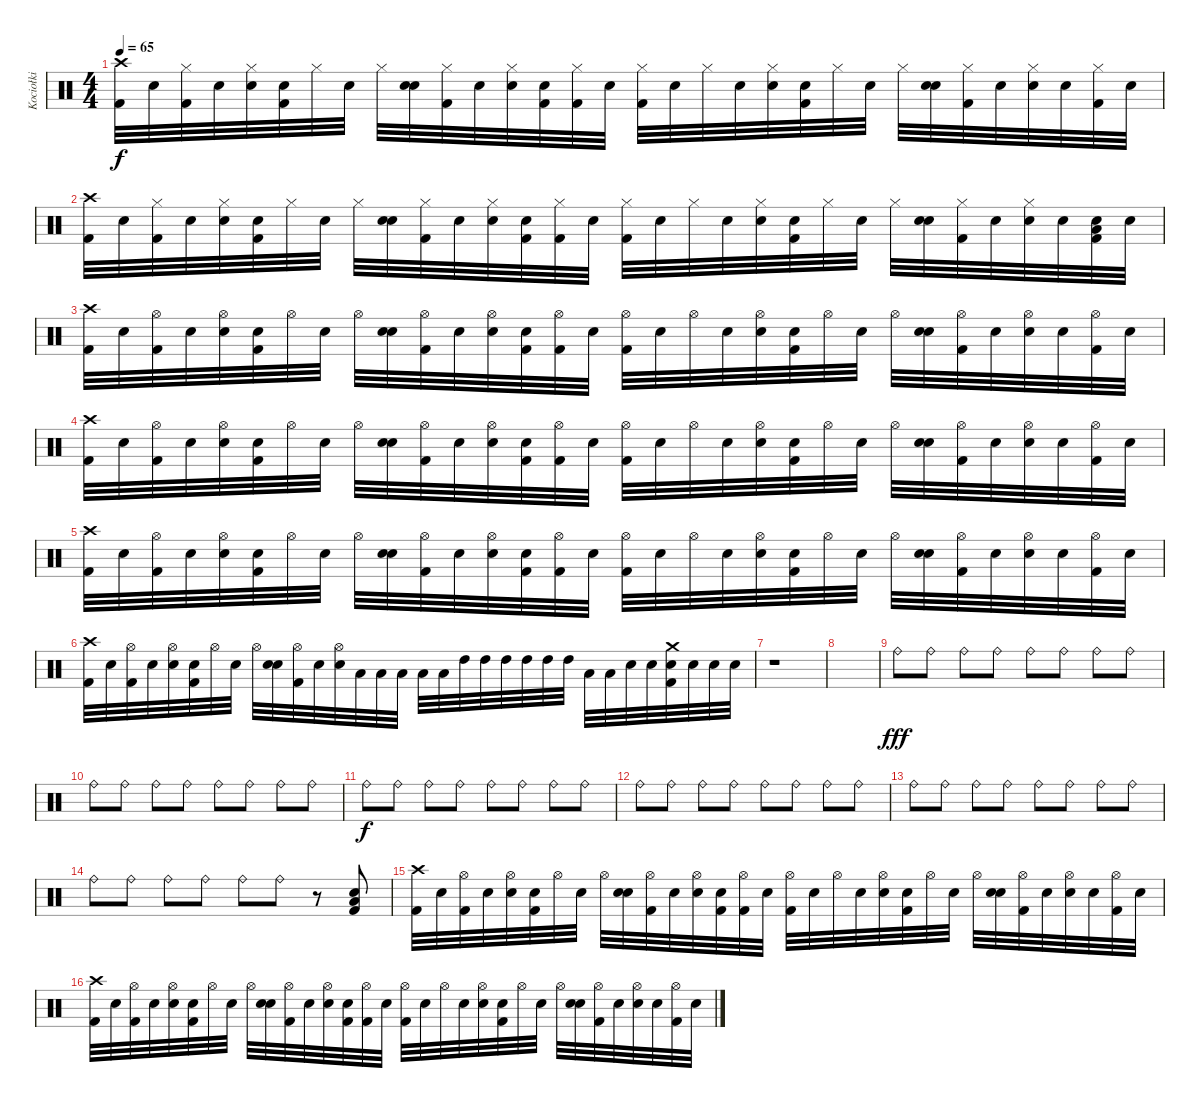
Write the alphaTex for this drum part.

\track ("Kociołki" "Kociołki") {instrument percussion}
\staff {score}
\articulation defaults
\ts (4 4)
\tempo 65
\clef neutral
\ks c
("Crash high (hit)" "Kick (hit) 2").32{dy f} "Snare (hit)".32 ("Hi-Hat (closed)" "Kick (hit) 2").32 "Snare (hit)".32 ("Hi-Hat (closed)" "Snare (hit) 2").32 ("Snare (hit)" "Kick (hit) 2").32 "Hi-Hat (closed)".32 "Snare (hit)".32 "Hi-Hat (closed)".32 ("Snare (hit)" "Snare (hit) 2").32 ("Hi-Hat (closed)" "Kick (hit) 2").32 "Snare (hit)".32 ("Hi-Hat (closed)" "Snare (hit) 2").32 ("Snare (hit)" "Kick (hit) 2").32 ("Hi-Hat (closed)" "Kick (hit) 2").32 "Snare (hit)".32 ("Hi-Hat (closed)" "Kick (hit) 2").32 "Snare (hit)".32 "Hi-Hat (closed)".32 "Snare (hit)".32 ("Hi-Hat (closed)" "Snare (hit) 2").32 ("Snare (hit)" "Kick (hit) 2").32 "Hi-Hat (closed)".32 "Snare (hit)".32 "Hi-Hat (closed)".32 ("Snare (hit)" "Snare (hit) 2").32 ("Hi-Hat (closed)" "Kick (hit) 2").32 "Snare (hit)".32 ("Hi-Hat (closed)" "Snare (hit) 2").32 "Snare (hit)".32 ("Hi-Hat (closed)" "Kick (hit) 2").32 "Snare (hit)".32 |
("Crash high (hit)" "Kick (hit) 2").32 "Snare (hit)".32 ("Hi-Hat (closed)" "Kick (hit) 2").32 "Snare (hit)".32 ("Hi-Hat (closed)" "Snare (hit) 2").32 ("Snare (hit)" "Kick (hit) 2").32 "Hi-Hat (closed)".32 "Snare (hit)".32 "Hi-Hat (closed)".32 ("Snare (hit)" "Snare (hit) 2").32 ("Hi-Hat (closed)" "Kick (hit) 2").32 "Snare (hit)".32 ("Hi-Hat (closed)" "Snare (hit) 2").32 ("Snare (hit)" "Kick (hit) 2").32 ("Hi-Hat (closed)" "Kick (hit) 2").32 "Snare (hit)".32 ("Hi-Hat (closed)" "Kick (hit) 2").32 "Snare (hit)".32 "Hi-Hat (closed)".32 "Snare (hit)".32 ("Hi-Hat (closed)" "Snare (hit) 2").32 ("Snare (hit)" "Kick (hit) 2").32 "Hi-Hat (closed)".32 "Snare (hit)".32 "Hi-Hat (closed)".32 ("Snare (hit)" "Snare (hit) 2").32 ("Hi-Hat (closed)" "Kick (hit) 2").32 "Snare (hit)".32 ("Hi-Hat (closed)" "Snare (hit) 2").32 "Snare (hit)".32 ("Snare (hit) 2" "Low Tom (hit)" "Kick (hit) 2").32 "Snare (hit)".32 |
("Crash high (hit)" "Kick (hit) 2").32 "Snare (hit)".32 ("Hi-Hat (open)" "Kick (hit) 2").32 "Snare (hit)".32 ("Hi-Hat (open)" "Snare (hit) 2").32 ("Snare (hit)" "Kick (hit) 2").32 "Hi-Hat (open)".32 "Snare (hit)".32 "Hi-Hat (open)".32 ("Snare (hit)" "Snare (hit) 2").32 ("Hi-Hat (open)" "Kick (hit) 2").32 "Snare (hit)".32 ("Hi-Hat (open)" "Snare (hit) 2").32 ("Snare (hit)" "Kick (hit) 2").32 ("Hi-Hat (open)" "Kick (hit) 2").32 "Snare (hit)".32 ("Hi-Hat (open)" "Kick (hit) 2").32 "Snare (hit)".32 "Hi-Hat (open)".32 "Snare (hit)".32 ("Hi-Hat (open)" "Snare (hit) 2").32 ("Snare (hit)" "Kick (hit) 2").32 "Hi-Hat (open)".32 "Snare (hit)".32 "Hi-Hat (open)".32 ("Snare (hit)" "Snare (hit) 2").32 ("Hi-Hat (open)" "Kick (hit) 2").32 "Snare (hit)".32 ("Hi-Hat (open)" "Snare (hit) 2").32 "Snare (hit)".32 ("Hi-Hat (open)" "Kick (hit) 2").32 "Snare (hit)".32 |
("Crash high (hit)" "Kick (hit) 2").32 "Snare (hit)".32 ("Hi-Hat (open)" "Kick (hit) 2").32 "Snare (hit)".32 ("Hi-Hat (open)" "Snare (hit) 2").32 ("Snare (hit)" "Kick (hit) 2").32 "Hi-Hat (open)".32 "Snare (hit)".32 "Hi-Hat (open)".32 ("Snare (hit)" "Snare (hit) 2").32 ("Hi-Hat (open)" "Kick (hit) 2").32 "Snare (hit)".32 ("Hi-Hat (open)" "Snare (hit) 2").32 ("Snare (hit)" "Kick (hit) 2").32 ("Hi-Hat (open)" "Kick (hit) 2").32 "Snare (hit)".32 ("Hi-Hat (open)" "Kick (hit) 2").32 "Snare (hit)".32 "Hi-Hat (open)".32 "Snare (hit)".32 ("Hi-Hat (open)" "Snare (hit) 2").32 ("Snare (hit)" "Kick (hit) 2").32 "Hi-Hat (open)".32 "Snare (hit)".32 "Hi-Hat (open)".32 ("Snare (hit)" "Snare (hit) 2").32 ("Hi-Hat (open)" "Kick (hit) 2").32 "Snare (hit)".32 ("Hi-Hat (open)" "Snare (hit) 2").32 "Snare (hit)".32 ("Hi-Hat (open)" "Kick (hit) 2").32 "Snare (hit)".32 |
("Crash high (hit)" "Kick (hit) 2").32 "Snare (hit)".32 ("Hi-Hat (open)" "Kick (hit) 2").32 "Snare (hit)".32 ("Hi-Hat (open)" "Snare (hit) 2").32 ("Snare (hit)" "Kick (hit) 2").32 "Hi-Hat (open)".32 "Snare (hit)".32 "Hi-Hat (open)".32 ("Snare (hit)" "Snare (hit) 2").32 ("Hi-Hat (open)" "Kick (hit) 2").32 "Snare (hit)".32 ("Hi-Hat (open)" "Snare (hit) 2").32 ("Snare (hit)" "Kick (hit) 2").32 ("Hi-Hat (open)" "Kick (hit) 2").32 "Snare (hit)".32 ("Hi-Hat (open)" "Kick (hit) 2").32 "Snare (hit)".32 "Hi-Hat (open)".32 "Snare (hit)".32 ("Hi-Hat (open)" "Snare (hit) 2").32 ("Snare (hit)" "Kick (hit) 2").32 "Hi-Hat (open)".32 "Snare (hit)".32 "Hi-Hat (open)".32 ("Snare (hit)" "Snare (hit) 2").32 ("Hi-Hat (open)" "Kick (hit) 2").32 "Snare (hit)".32 ("Hi-Hat (open)" "Snare (hit) 2").32 "Snare (hit)".32 ("Hi-Hat (open)" "Kick (hit) 2").32 "Snare (hit)".32 |
("Crash high (hit)" "Kick (hit) 2").32 "Snare (hit)".32 ("Hi-Hat (open)" "Kick (hit) 2").32 "Snare (hit)".32 ("Hi-Hat (open)" "Snare (hit) 2").32 ("Snare (hit)" "Kick (hit) 2").32 "Hi-Hat (open)".32 "Snare (hit)".32 "Hi-Hat (open)".32 ("Snare (hit)" "Snare (hit) 2").32 ("Hi-Hat (open)" "Kick (hit) 2").32 "Snare (hit)".32 ("Hi-Hat (open)" "Snare (hit) 2").32 "Low Floor Tom (hit)".32 "Low Floor Tom (hit)".32 "Low Floor Tom (hit)".32 "Low Floor Tom (hit)".32 "Low Floor Tom (hit)".32 "High Tom (hit)".32 "High Tom (hit)".32 "High Tom (hit)".32 "High Tom (hit)".32 "High Tom (hit)".32 "High Tom (hit)".32 "Low Tom (hit)".32 "Low Tom (hit)".32 "Snare (hit)".32 "Snare (hit)".32 ("Crash medium (hit)" "Snare (hit)" "Kick (hit) 2").32 "Snare (hit)".32 "Snare (hit)".32 "Snare (hit)".32 |
r.1 |
|
"Ride (bell)".8{dy fff} "Ride (bell)".8 "Ride (bell)".8 "Ride (bell)".8 "Ride (bell)".8 "Ride (bell)".8 "Ride (bell)".8 "Ride (bell)".8 |
"Ride (bell)".8 "Ride (bell)".8 "Ride (bell)".8 "Ride (bell)".8 "Ride (bell)".8 "Ride (bell)".8 "Ride (bell)".8 "Ride (bell)".8 |
"Ride (bell)".8{dy f} "Ride (bell)".8 "Ride (bell)".8 "Ride (bell)".8 "Ride (bell)".8 "Ride (bell)".8 "Ride (bell)".8 "Ride (bell)".8 |
"Ride (bell)".8 "Ride (bell)".8 "Ride (bell)".8 "Ride (bell)".8 "Ride (bell)".8 "Ride (bell)".8 "Ride (bell)".8 "Ride (bell)".8 |
"Ride (bell)".8 "Ride (bell)".8 "Ride (bell)".8 "Ride (bell)".8 "Ride (bell)".8 "Ride (bell)".8 "Ride (bell)".8 "Ride (bell)".8 |
"Ride (bell)".8 "Ride (bell)".8 "Ride (bell)".8 "Ride (bell)".8 "Ride (bell)".8 "Ride (bell)".8 r.8 ("Snare (hit) 2" "Low Tom (hit)" "Kick (hit) 2").8 |
("Crash high (hit)" "Kick (hit) 2").32 "Snare (hit)".32 ("Hi-Hat (open)" "Kick (hit) 2").32 "Snare (hit)".32 ("Hi-Hat (open)" "Snare (hit) 2").32 ("Snare (hit)" "Kick (hit) 2").32 "Hi-Hat (open)".32 "Snare (hit)".32 "Hi-Hat (open)".32 ("Snare (hit)" "Snare (hit) 2").32 ("Hi-Hat (open)" "Kick (hit) 2").32 "Snare (hit)".32 ("Hi-Hat (open)" "Snare (hit) 2").32 ("Snare (hit)" "Kick (hit) 2").32 ("Hi-Hat (open)" "Kick (hit) 2").32 "Snare (hit)".32 ("Hi-Hat (open)" "Kick (hit) 2").32 "Snare (hit)".32 "Hi-Hat (open)".32 "Snare (hit)".32 ("Hi-Hat (open)" "Snare (hit) 2").32 ("Snare (hit)" "Kick (hit) 2").32 "Hi-Hat (open)".32 "Snare (hit)".32 "Hi-Hat (open)".32 ("Snare (hit)" "Snare (hit) 2").32 ("Hi-Hat (open)" "Kick (hit) 2").32 "Snare (hit)".32 ("Hi-Hat (open)" "Snare (hit) 2").32 "Snare (hit)".32 ("Hi-Hat (open)" "Kick (hit) 2").32 "Snare (hit)".32 |
("Crash high (hit)" "Kick (hit) 2").32 "Snare (hit)".32 ("Hi-Hat (open)" "Kick (hit) 2").32 "Snare (hit)".32 ("Hi-Hat (open)" "Snare (hit) 2").32 ("Snare (hit)" "Kick (hit) 2").32 "Hi-Hat (open)".32 "Snare (hit)".32 "Hi-Hat (open)".32 ("Snare (hit)" "Snare (hit) 2").32 ("Hi-Hat (open)" "Kick (hit) 2").32 "Snare (hit)".32 ("Hi-Hat (open)" "Snare (hit) 2").32 ("Snare (hit)" "Kick (hit) 2").32 ("Hi-Hat (open)" "Kick (hit) 2").32 "Snare (hit)".32 ("Hi-Hat (open)" "Kick (hit) 2").32 "Snare (hit)".32 "Hi-Hat (open)".32 "Snare (hit)".32 ("Hi-Hat (open)" "Snare (hit) 2").32 ("Snare (hit)" "Kick (hit) 2").32 "Hi-Hat (open)".32 "Snare (hit)".32 "Hi-Hat (open)".32 ("Snare (hit)" "Snare (hit) 2").32 ("Hi-Hat (open)" "Kick (hit) 2").32 "Snare (hit)".32 ("Hi-Hat (open)" "Snare (hit) 2").32 "Snare (hit)".32 ("Hi-Hat (open)" "Kick (hit) 2").32 "Snare (hit)".32
